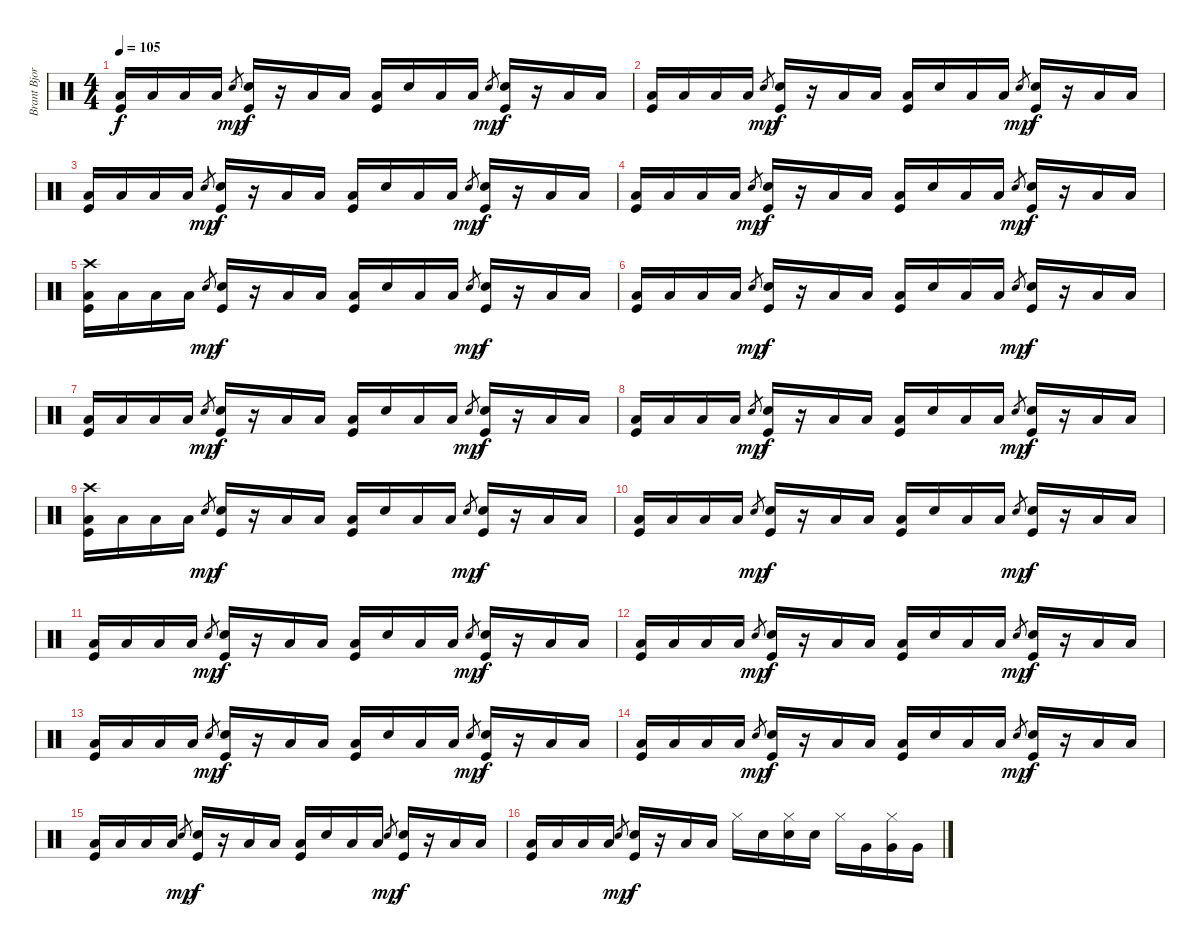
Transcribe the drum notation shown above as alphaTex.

\track ("Brant Bjork - Drums" "Brant Bjor") {instrument percussion}
\staff {score}
\articulation defaults
\ts (4 4)
\tempo 105
\clef neutral
\ks c
("Low Floor Tom (hit)" "Kick (hit)").16{dy f} "Low Floor Tom (hit)".16 "Low Floor Tom (hit)".16 "Low Floor Tom (hit)".16 "Snare (hit) 2".8{gr dy mp} ("Snare (hit) 2" "Kick (hit)").16{dy f} r.16 "Low Floor Tom (hit)".16 "Low Floor Tom (hit)".16 ("Low Floor Tom (hit)" "Kick (hit)").16 "Snare (hit) 2".16 "Low Floor Tom (hit)".16 "Low Floor Tom (hit)".16 "Snare (hit) 2".8{gr dy mp} ("Snare (hit) 2" "Kick (hit)").16{dy f} r.16 "Low Floor Tom (hit)".16 "Low Floor Tom (hit)".16 |
("Low Floor Tom (hit)" "Kick (hit)").16 "Low Floor Tom (hit)".16 "Low Floor Tom (hit)".16 "Low Floor Tom (hit)".16 "Snare (hit) 2".8{gr dy mp} ("Snare (hit) 2" "Kick (hit)").16{dy f} r.16 "Low Floor Tom (hit)".16 "Low Floor Tom (hit)".16 ("Low Floor Tom (hit)" "Kick (hit)").16 "Snare (hit) 2".16 "Low Floor Tom (hit)".16 "Low Floor Tom (hit)".16 "Snare (hit) 2".8{gr dy mp} ("Snare (hit) 2" "Kick (hit)").16{dy f} r.16 "Low Floor Tom (hit)".16 "Low Floor Tom (hit)".16 |
("Low Floor Tom (hit)" "Kick (hit)").16 "Low Floor Tom (hit)".16 "Low Floor Tom (hit)".16 "Low Floor Tom (hit)".16 "Snare (hit) 2".8{gr dy mp} ("Snare (hit) 2" "Kick (hit)").16{dy f} r.16 "Low Floor Tom (hit)".16 "Low Floor Tom (hit)".16 ("Low Floor Tom (hit)" "Kick (hit)").16 "Snare (hit) 2".16 "Low Floor Tom (hit)".16 "Low Floor Tom (hit)".16 "Snare (hit) 2".8{gr dy mp} ("Snare (hit) 2" "Kick (hit)").16{dy f} r.16 "Low Floor Tom (hit)".16 "Low Floor Tom (hit)".16 |
("Low Floor Tom (hit)" "Kick (hit)").16 "Low Floor Tom (hit)".16 "Low Floor Tom (hit)".16 "Low Floor Tom (hit)".16 "Snare (hit) 2".8{gr dy mp} ("Snare (hit) 2" "Kick (hit)").16{dy f} r.16 "Low Floor Tom (hit)".16 "Low Floor Tom (hit)".16 ("Low Floor Tom (hit)" "Kick (hit)").16 "Snare (hit) 2".16 "Low Floor Tom (hit)".16 "Low Floor Tom (hit)".16 "Snare (hit) 2".8{gr dy mp} ("Snare (hit) 2" "Kick (hit)").16{dy f} r.16 "Low Floor Tom (hit)".16 "Low Floor Tom (hit)".16 |
("Crash high (hit)" "Low Floor Tom (hit)" "Kick (hit)").16 "Low Floor Tom (hit)".16 "Low Floor Tom (hit)".16 "Low Floor Tom (hit)".16 "Snare (hit) 2".8{gr dy mp} ("Snare (hit) 2" "Kick (hit)").16{dy f} r.16 "Low Floor Tom (hit)".16 "Low Floor Tom (hit)".16 ("Low Floor Tom (hit)" "Kick (hit)").16 "Snare (hit) 2".16 "Low Floor Tom (hit)".16 "Low Floor Tom (hit)".16 "Snare (hit) 2".8{gr dy mp} ("Snare (hit) 2" "Kick (hit)").16{dy f} r.16 "Low Floor Tom (hit)".16 "Low Floor Tom (hit)".16 |
("Low Floor Tom (hit)" "Kick (hit)").16 "Low Floor Tom (hit)".16 "Low Floor Tom (hit)".16 "Low Floor Tom (hit)".16 "Snare (hit) 2".8{gr dy mp} ("Snare (hit) 2" "Kick (hit)").16{dy f} r.16 "Low Floor Tom (hit)".16 "Low Floor Tom (hit)".16 ("Low Floor Tom (hit)" "Kick (hit)").16 "Snare (hit) 2".16 "Low Floor Tom (hit)".16 "Low Floor Tom (hit)".16 "Snare (hit) 2".8{gr dy mp} ("Snare (hit) 2" "Kick (hit)").16{dy f} r.16 "Low Floor Tom (hit)".16 "Low Floor Tom (hit)".16 |
("Low Floor Tom (hit)" "Kick (hit)").16 "Low Floor Tom (hit)".16 "Low Floor Tom (hit)".16 "Low Floor Tom (hit)".16 "Snare (hit) 2".8{gr dy mp} ("Snare (hit) 2" "Kick (hit)").16{dy f} r.16 "Low Floor Tom (hit)".16 "Low Floor Tom (hit)".16 ("Low Floor Tom (hit)" "Kick (hit)").16 "Snare (hit) 2".16 "Low Floor Tom (hit)".16 "Low Floor Tom (hit)".16 "Snare (hit) 2".8{gr dy mp} ("Snare (hit) 2" "Kick (hit)").16{dy f} r.16 "Low Floor Tom (hit)".16 "Low Floor Tom (hit)".16 |
("Low Floor Tom (hit)" "Kick (hit)").16 "Low Floor Tom (hit)".16 "Low Floor Tom (hit)".16 "Low Floor Tom (hit)".16 "Snare (hit) 2".8{gr dy mp} ("Snare (hit) 2" "Kick (hit)").16{dy f} r.16 "Low Floor Tom (hit)".16 "Low Floor Tom (hit)".16 ("Low Floor Tom (hit)" "Kick (hit)").16 "Snare (hit) 2".16 "Low Floor Tom (hit)".16 "Low Floor Tom (hit)".16 "Snare (hit) 2".8{gr dy mp} ("Snare (hit) 2" "Kick (hit)").16{dy f} r.16 "Low Floor Tom (hit)".16 "Low Floor Tom (hit)".16 |
("Crash high (hit)" "Low Floor Tom (hit)" "Kick (hit)").16 "Low Floor Tom (hit)".16 "Low Floor Tom (hit)".16 "Low Floor Tom (hit)".16 "Snare (hit) 2".8{gr dy mp} ("Snare (hit) 2" "Kick (hit)").16{dy f} r.16 "Low Floor Tom (hit)".16 "Low Floor Tom (hit)".16 ("Low Floor Tom (hit)" "Kick (hit)").16 "Snare (hit) 2".16 "Low Floor Tom (hit)".16 "Low Floor Tom (hit)".16 "Snare (hit) 2".8{gr dy mp} ("Snare (hit) 2" "Kick (hit)").16{dy f} r.16 "Low Floor Tom (hit)".16 "Low Floor Tom (hit)".16 |
("Low Floor Tom (hit)" "Kick (hit)").16 "Low Floor Tom (hit)".16 "Low Floor Tom (hit)".16 "Low Floor Tom (hit)".16 "Snare (hit) 2".8{gr dy mp} ("Snare (hit) 2" "Kick (hit)").16{dy f} r.16 "Low Floor Tom (hit)".16 "Low Floor Tom (hit)".16 ("Low Floor Tom (hit)" "Kick (hit)").16 "Snare (hit) 2".16 "Low Floor Tom (hit)".16 "Low Floor Tom (hit)".16 "Snare (hit) 2".8{gr dy mp} ("Snare (hit) 2" "Kick (hit)").16{dy f} r.16 "Low Floor Tom (hit)".16 "Low Floor Tom (hit)".16 |
("Low Floor Tom (hit)" "Kick (hit)").16 "Low Floor Tom (hit)".16 "Low Floor Tom (hit)".16 "Low Floor Tom (hit)".16 "Snare (hit) 2".8{gr dy mp} ("Snare (hit) 2" "Kick (hit)").16{dy f} r.16 "Low Floor Tom (hit)".16 "Low Floor Tom (hit)".16 ("Low Floor Tom (hit)" "Kick (hit)").16 "Snare (hit) 2".16 "Low Floor Tom (hit)".16 "Low Floor Tom (hit)".16 "Snare (hit) 2".8{gr dy mp} ("Snare (hit) 2" "Kick (hit)").16{dy f} r.16 "Low Floor Tom (hit)".16 "Low Floor Tom (hit)".16 |
("Low Floor Tom (hit)" "Kick (hit)").16 "Low Floor Tom (hit)".16 "Low Floor Tom (hit)".16 "Low Floor Tom (hit)".16 "Snare (hit) 2".8{gr dy mp} ("Snare (hit) 2" "Kick (hit)").16{dy f} r.16 "Low Floor Tom (hit)".16 "Low Floor Tom (hit)".16 ("Low Floor Tom (hit)" "Kick (hit)").16 "Snare (hit) 2".16 "Low Floor Tom (hit)".16 "Low Floor Tom (hit)".16 "Snare (hit) 2".8{gr dy mp} ("Snare (hit) 2" "Kick (hit)").16{dy f} r.16 "Low Floor Tom (hit)".16 "Low Floor Tom (hit)".16 |
("Low Floor Tom (hit)" "Kick (hit)").16 "Low Floor Tom (hit)".16 "Low Floor Tom (hit)".16 "Low Floor Tom (hit)".16 "Snare (hit) 2".8{gr dy mp} ("Snare (hit) 2" "Kick (hit)").16{dy f} r.16 "Low Floor Tom (hit)".16 "Low Floor Tom (hit)".16 ("Low Floor Tom (hit)" "Kick (hit)").16 "Snare (hit) 2".16 "Low Floor Tom (hit)".16 "Low Floor Tom (hit)".16 "Snare (hit) 2".8{gr dy mp} ("Snare (hit) 2" "Kick (hit)").16{dy f} r.16 "Low Floor Tom (hit)".16 "Low Floor Tom (hit)".16 |
("Low Floor Tom (hit)" "Kick (hit)").16 "Low Floor Tom (hit)".16 "Low Floor Tom (hit)".16 "Low Floor Tom (hit)".16 "Snare (hit) 2".8{gr dy mp} ("Snare (hit) 2" "Kick (hit)").16{dy f} r.16 "Low Floor Tom (hit)".16 "Low Floor Tom (hit)".16 ("Low Floor Tom (hit)" "Kick (hit)").16 "Snare (hit) 2".16 "Low Floor Tom (hit)".16 "Low Floor Tom (hit)".16 "Snare (hit) 2".8{gr dy mp} ("Snare (hit) 2" "Kick (hit)").16{dy f} r.16 "Low Floor Tom (hit)".16 "Low Floor Tom (hit)".16 |
("Low Floor Tom (hit)" "Kick (hit)").16 "Low Floor Tom (hit)".16 "Low Floor Tom (hit)".16 "Low Floor Tom (hit)".16 "Snare (hit) 2".8{gr dy mp} ("Snare (hit) 2" "Kick (hit)").16{dy f} r.16 "Low Floor Tom (hit)".16 "Low Floor Tom (hit)".16 ("Low Floor Tom (hit)" "Kick (hit)").16 "Snare (hit) 2".16 "Low Floor Tom (hit)".16 "Low Floor Tom (hit)".16 "Snare (hit) 2".8{gr dy mp} ("Snare (hit) 2" "Kick (hit)").16{dy f} r.16 "Low Floor Tom (hit)".16 "Low Floor Tom (hit)".16 |
("Low Floor Tom (hit)" "Kick (hit)").16 "Low Floor Tom (hit)".16 "Low Floor Tom (hit)".16 "Low Floor Tom (hit)".16 "Snare (hit) 2".8{gr dy mp} ("Snare (hit) 2" "Kick (hit)").16{dy f} r.16 "Low Floor Tom (hit)".16 "Low Floor Tom (hit)".16 "Hi-Hat (closed)".16 "Snare (hit) 2".16 ("Hi-Hat (closed)" "Snare (hit) 2").16 "Snare (hit) 2".16 "Hi-Hat (closed)".16 "Very Low Tom (hit)".16 ("Hi-Hat (closed)" "Very Low Tom (hit)").16 "Very Low Tom (hit)".16
